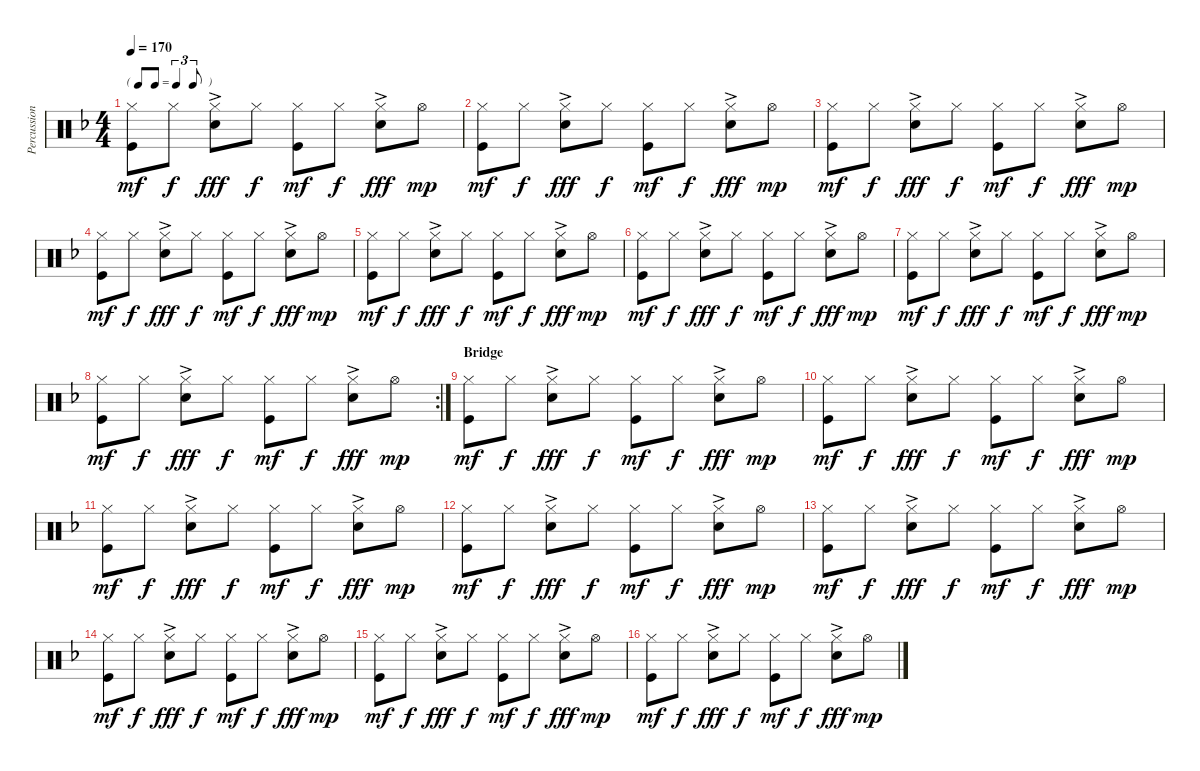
\track ("Percussion" "Percussion") {instrument percussion}
\staff {score}
\articulation defaults
\ts (4 4)
\tf triplet8th
\tempo 170
\clef neutral
\ks f
("Hi-Hat (closed)" "Kick (hit)").8{dy mf} "Hi-Hat (closed)".8{dy f} ("Hi-Hat (closed)" "Snare (hit) 2"{ac}).8{dy fff} "Hi-Hat (closed)".8{dy f} ("Hi-Hat (closed)" "Kick (hit)").8{dy mf} "Hi-Hat (closed)".8{dy f} ("Hi-Hat (closed)" "Snare (hit) 2"{ac}).8{dy fff} "Hi-Hat (open)".8{dy mp} |
("Hi-Hat (closed)" "Kick (hit)").8{dy mf} "Hi-Hat (closed)".8{dy f} ("Hi-Hat (closed)" "Snare (hit) 2"{ac}).8{dy fff} "Hi-Hat (closed)".8{dy f} ("Hi-Hat (closed)" "Kick (hit)").8{dy mf} "Hi-Hat (closed)".8{dy f} ("Hi-Hat (closed)" "Snare (hit) 2"{ac}).8{dy fff} "Hi-Hat (open)".8{dy mp} |
("Hi-Hat (closed)" "Kick (hit)").8{dy mf} "Hi-Hat (closed)".8{dy f} ("Hi-Hat (closed)" "Snare (hit) 2"{ac}).8{dy fff} "Hi-Hat (closed)".8{dy f} ("Hi-Hat (closed)" "Kick (hit)").8{dy mf} "Hi-Hat (closed)".8{dy f} ("Hi-Hat (closed)" "Snare (hit) 2"{ac}).8{dy fff} "Hi-Hat (open)".8{dy mp} |
("Hi-Hat (closed)" "Kick (hit)").8{dy mf} "Hi-Hat (closed)".8{dy f} ("Hi-Hat (closed)" "Snare (hit) 2"{ac}).8{dy fff} "Hi-Hat (closed)".8{dy f} ("Hi-Hat (closed)" "Kick (hit)").8{dy mf} "Hi-Hat (closed)".8{dy f} ("Hi-Hat (closed)" "Snare (hit) 2"{ac}).8{dy fff} "Hi-Hat (open)".8{dy mp} |
("Hi-Hat (closed)" "Kick (hit)").8{dy mf} "Hi-Hat (closed)".8{dy f} ("Hi-Hat (closed)" "Snare (hit) 2"{ac}).8{dy fff} "Hi-Hat (closed)".8{dy f} ("Hi-Hat (closed)" "Kick (hit)").8{dy mf} "Hi-Hat (closed)".8{dy f} ("Hi-Hat (closed)" "Snare (hit) 2"{ac}).8{dy fff} "Hi-Hat (open)".8{dy mp} |
("Hi-Hat (closed)" "Kick (hit)").8{dy mf} "Hi-Hat (closed)".8{dy f} ("Hi-Hat (closed)" "Snare (hit) 2"{ac}).8{dy fff} "Hi-Hat (closed)".8{dy f} ("Hi-Hat (closed)" "Kick (hit)").8{dy mf} "Hi-Hat (closed)".8{dy f} ("Hi-Hat (closed)" "Snare (hit) 2"{ac}).8{dy fff} "Hi-Hat (open)".8{dy mp} |
("Hi-Hat (closed)" "Kick (hit)").8{dy mf} "Hi-Hat (closed)".8{dy f} ("Hi-Hat (closed)" "Snare (hit) 2"{ac}).8{dy fff} "Hi-Hat (closed)".8{dy f} ("Hi-Hat (closed)" "Kick (hit)").8{dy mf} "Hi-Hat (closed)".8{dy f} ("Hi-Hat (closed)" "Snare (hit) 2"{ac}).8{dy fff} "Hi-Hat (open)".8{dy mp} |
\rc 2
("Hi-Hat (closed)" "Kick (hit)").8{dy mf} "Hi-Hat (closed)".8{dy f} ("Hi-Hat (closed)" "Snare (hit) 2"{ac}).8{dy fff} "Hi-Hat (closed)".8{dy f} ("Hi-Hat (closed)" "Kick (hit)").8{dy mf} "Hi-Hat (closed)".8{dy f} ("Hi-Hat (closed)" "Snare (hit) 2"{ac}).8{dy fff} "Hi-Hat (open)".8{dy mp} |
\section ("" "Bridge")
("Hi-Hat (closed)" "Kick (hit)").8{dy mf} "Hi-Hat (closed)".8{dy f} ("Hi-Hat (closed)" "Snare (hit) 2"{ac}).8{dy fff} "Hi-Hat (closed)".8{dy f} ("Hi-Hat (closed)" "Kick (hit)").8{dy mf} "Hi-Hat (closed)".8{dy f} ("Hi-Hat (closed)" "Snare (hit) 2"{ac}).8{dy fff} "Hi-Hat (open)".8{dy mp} |
("Hi-Hat (closed)" "Kick (hit)").8{dy mf} "Hi-Hat (closed)".8{dy f} ("Hi-Hat (closed)" "Snare (hit) 2"{ac}).8{dy fff} "Hi-Hat (closed)".8{dy f} ("Hi-Hat (closed)" "Kick (hit)").8{dy mf} "Hi-Hat (closed)".8{dy f} ("Hi-Hat (closed)" "Snare (hit) 2"{ac}).8{dy fff} "Hi-Hat (open)".8{dy mp} |
("Hi-Hat (closed)" "Kick (hit)").8{dy mf} "Hi-Hat (closed)".8{dy f} ("Hi-Hat (closed)" "Snare (hit) 2"{ac}).8{dy fff} "Hi-Hat (closed)".8{dy f} ("Hi-Hat (closed)" "Kick (hit)").8{dy mf} "Hi-Hat (closed)".8{dy f} ("Hi-Hat (closed)" "Snare (hit) 2"{ac}).8{dy fff} "Hi-Hat (open)".8{dy mp} |
("Hi-Hat (closed)" "Kick (hit)").8{dy mf} "Hi-Hat (closed)".8{dy f} ("Hi-Hat (closed)" "Snare (hit) 2"{ac}).8{dy fff} "Hi-Hat (closed)".8{dy f} ("Hi-Hat (closed)" "Kick (hit)").8{dy mf} "Hi-Hat (closed)".8{dy f} ("Hi-Hat (closed)" "Snare (hit) 2"{ac}).8{dy fff} "Hi-Hat (open)".8{dy mp} |
("Hi-Hat (closed)" "Kick (hit)").8{dy mf} "Hi-Hat (closed)".8{dy f} ("Hi-Hat (closed)" "Snare (hit) 2"{ac}).8{dy fff} "Hi-Hat (closed)".8{dy f} ("Hi-Hat (closed)" "Kick (hit)").8{dy mf} "Hi-Hat (closed)".8{dy f} ("Hi-Hat (closed)" "Snare (hit) 2"{ac}).8{dy fff} "Hi-Hat (open)".8{dy mp} |
("Hi-Hat (closed)" "Kick (hit)").8{dy mf} "Hi-Hat (closed)".8{dy f} ("Hi-Hat (closed)" "Snare (hit) 2"{ac}).8{dy fff} "Hi-Hat (closed)".8{dy f} ("Hi-Hat (closed)" "Kick (hit)").8{dy mf} "Hi-Hat (closed)".8{dy f} ("Hi-Hat (closed)" "Snare (hit) 2"{ac}).8{dy fff} "Hi-Hat (open)".8{dy mp} |
("Hi-Hat (closed)" "Kick (hit)").8{dy mf} "Hi-Hat (closed)".8{dy f} ("Hi-Hat (closed)" "Snare (hit) 2"{ac}).8{dy fff} "Hi-Hat (closed)".8{dy f} ("Hi-Hat (closed)" "Kick (hit)").8{dy mf} "Hi-Hat (closed)".8{dy f} ("Hi-Hat (closed)" "Snare (hit) 2"{ac}).8{dy fff} "Hi-Hat (open)".8{dy mp} |
("Hi-Hat (closed)" "Kick (hit)").8{dy mf} "Hi-Hat (closed)".8{dy f} ("Hi-Hat (closed)" "Snare (hit) 2"{ac}).8{dy fff} "Hi-Hat (closed)".8{dy f} ("Hi-Hat (closed)" "Kick (hit)").8{dy mf} "Hi-Hat (closed)".8{dy f} ("Hi-Hat (closed)" "Snare (hit) 2"{ac}).8{dy fff} "Hi-Hat (open)".8{dy mp}
